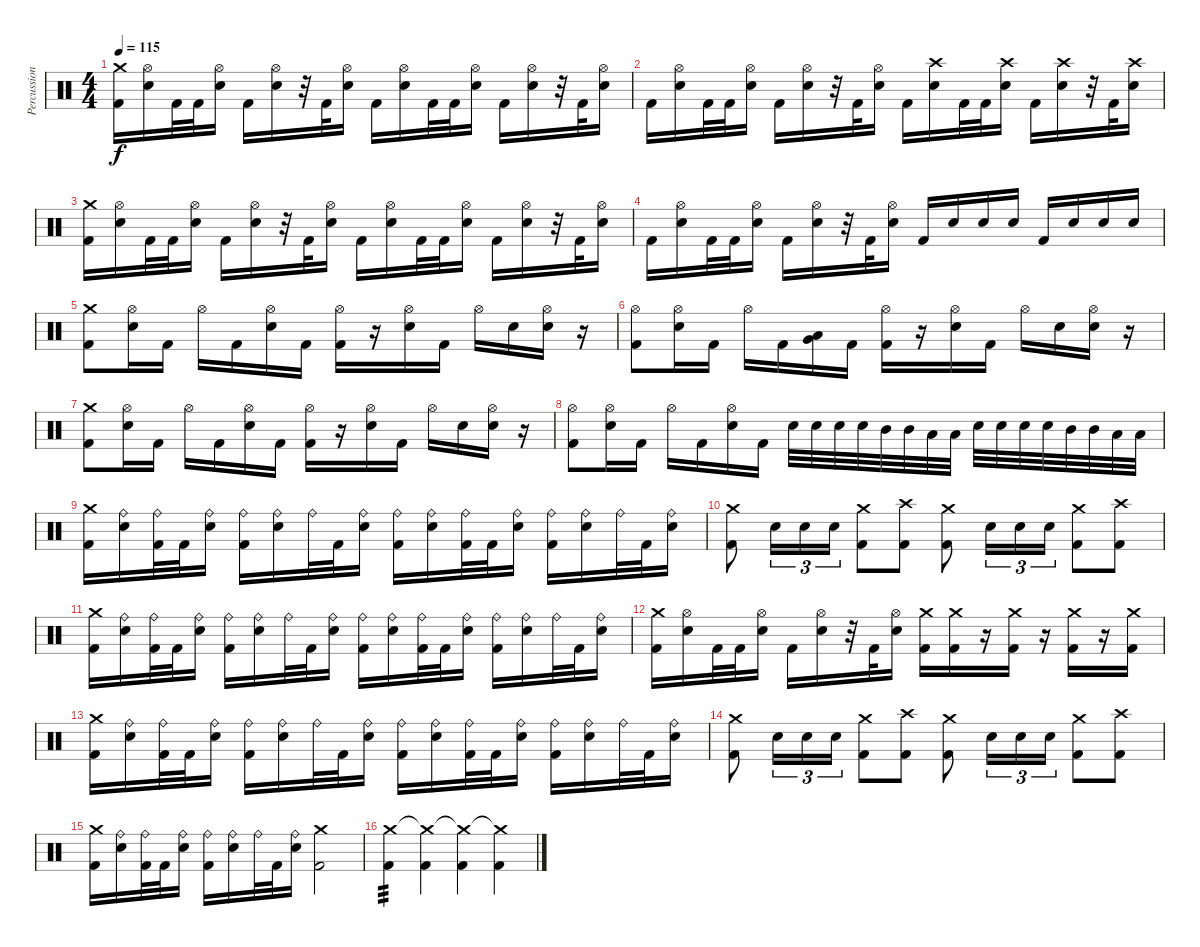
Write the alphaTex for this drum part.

\track ("Percussion" "Percussion") {instrument percussion}
\staff {score}
\articulation defaults
\ts (4 4)
\tempo 115
\clef neutral
\ks c
("Crash medium (hit)" "Kick (hit) 2").16{dy f} ("Hi-Hat (open)" "Electric Snare (hit)").16 "Kick (hit) 2".32 "Kick (hit) 2".32 ("Hi-Hat (open)" "Electric Snare (hit)").16 "Kick (hit) 2".16 ("Hi-Hat (open)" "Electric Snare (hit)").16 r.32 "Kick (hit) 2".32 ("Hi-Hat (open)" "Electric Snare (hit)").16 "Kick (hit) 2".16 ("Hi-Hat (open)" "Electric Snare (hit)").16 "Kick (hit) 2".32 "Kick (hit) 2".32 ("Hi-Hat (open)" "Electric Snare (hit)").16 "Kick (hit) 2".16 ("Hi-Hat (open)" "Electric Snare (hit)").16 r.32 "Kick (hit) 2".32 ("Hi-Hat (open)" "Electric Snare (hit)").16 |
"Kick (hit) 2".16 ("Hi-Hat (open)" "Electric Snare (hit)").16 "Kick (hit) 2".32 "Kick (hit) 2".32 ("Hi-Hat (open)" "Electric Snare (hit)").16 "Kick (hit) 2".16 ("Hi-Hat (open)" "Electric Snare (hit)").16 r.32 "Kick (hit) 2".32 ("Hi-Hat (open)" "Electric Snare (hit)").16 "Kick (hit) 2".16 ("Crash high (hit)" "Electric Snare (hit)").16 "Kick (hit) 2".32 "Kick (hit) 2".32 ("Crash high (hit)" "Electric Snare (hit)").16 "Kick (hit) 2".16 ("Crash high (hit)" "Electric Snare (hit)").16 r.32 "Kick (hit) 2".32 ("Crash high (hit)" "Electric Snare (hit)").16 |
("Crash medium (hit)" "Kick (hit) 2").16 ("Hi-Hat (open)" "Electric Snare (hit)").16 "Kick (hit) 2".32 "Kick (hit) 2".32 ("Hi-Hat (open)" "Electric Snare (hit)").16 "Kick (hit) 2".16 ("Hi-Hat (open)" "Electric Snare (hit)").16 r.32 "Kick (hit) 2".32 ("Hi-Hat (open)" "Electric Snare (hit)").16 "Kick (hit) 2".16 ("Hi-Hat (open)" "Electric Snare (hit)").16 "Kick (hit) 2".32 "Kick (hit) 2".32 ("Hi-Hat (open)" "Electric Snare (hit)").16 "Kick (hit) 2".16 ("Hi-Hat (open)" "Electric Snare (hit)").16 r.32 "Kick (hit) 2".32 ("Hi-Hat (open)" "Electric Snare (hit)").16 |
"Kick (hit) 2".16 ("Hi-Hat (open)" "Electric Snare (hit)").16 "Kick (hit) 2".32 "Kick (hit) 2".32 ("Hi-Hat (open)" "Electric Snare (hit)").16 "Kick (hit) 2".16 ("Hi-Hat (open)" "Electric Snare (hit)").16 r.32 "Kick (hit) 2".32 ("Hi-Hat (open)" "Electric Snare (hit)").16 "Kick (hit) 2".16 "Electric Snare (hit)".16 "Electric Snare (hit)".16 "Electric Snare (hit)".16 "Kick (hit) 2".16 "Electric Snare (hit)".16 "Electric Snare (hit)".16 "Electric Snare (hit)".16 |
("Crash medium (hit)" "Kick (hit) 2").8 ("Hi-Hat (open)" "Electric Snare (hit)").16 "Kick (hit) 2".16 "Hi-Hat (open)".16 "Kick (hit) 2".16 ("Hi-Hat (open)" "Electric Snare (hit)").16 "Kick (hit) 2".16 ("Hi-Hat (open)" "Kick (hit) 2").16 r.16 ("Hi-Hat (open)" "Electric Snare (hit)").16 "Kick (hit) 2".16 "Hi-Hat (open)".16 "Electric Snare (hit)".16 ("Hi-Hat (open)" "Electric Snare (hit)").16 r.16 |
("Hi-Hat (open)" "Kick (hit) 2").8 ("Hi-Hat (open)" "Electric Snare (hit)").16 "Kick (hit) 2".16 "Hi-Hat (open)".16 "Kick (hit) 2".16 ("Very Low Tom (hit)" "Low Tom (hit)").16 "Kick (hit) 2".16 ("Hi-Hat (open)" "Kick (hit) 2").16 r.16 ("Hi-Hat (open)" "Electric Snare (hit)").16 "Kick (hit) 2".16 "Hi-Hat (open)".16 "Electric Snare (hit)".16 ("Hi-Hat (open)" "Electric Snare (hit)").16 r.16 |
("Crash medium (hit)" "Kick (hit) 2").8 ("Hi-Hat (open)" "Electric Snare (hit)").16 "Kick (hit) 2".16 "Hi-Hat (open)".16 "Kick (hit) 2".16 ("Hi-Hat (open)" "Electric Snare (hit)").16 "Kick (hit) 2".16 ("Hi-Hat (open)" "Kick (hit) 2").16 r.16 ("Hi-Hat (open)" "Electric Snare (hit)").16 "Kick (hit) 2".16 "Hi-Hat (open)".16 "Electric Snare (hit)".16 ("Hi-Hat (open)" "Electric Snare (hit)").16 r.16 |
("Hi-Hat (open)" "Kick (hit) 2").8 ("Hi-Hat (open)" "Electric Snare (hit)").16 "Kick (hit) 2".16 "Hi-Hat (open)".16 "Kick (hit) 2".16 ("Hi-Hat (open)" "Electric Snare (hit)").16 "Kick (hit) 2".16 "Electric Snare (hit)".32 "Electric Snare (hit)".32 "Electric Snare (hit)".32 "Electric Snare (hit)".32 "Mid Tom (hit)".32 "Mid Tom (hit)".32 "Low Tom (hit)".32 "Low Tom (hit)".32 "Electric Snare (hit)".32 "Electric Snare (hit)".32 "Electric Snare (hit)".32 "Electric Snare (hit)".32 "Mid Tom (hit)".32 "Mid Tom (hit)".32 "Low Tom (hit)".32 "Low Tom (hit)".32 |
("Crash medium (hit)" "Kick (hit) 2").16 ("Ride (bell)" "Electric Snare (hit)").16 ("Ride (bell)" "Kick (hit) 2").32 "Kick (hit) 2".32 ("Ride (bell)" "Electric Snare (hit)").16 ("Ride (bell)" "Kick (hit) 2").16 ("Ride (bell)" "Electric Snare (hit)").16 "Ride (bell)".32 "Kick (hit) 2".32 ("Ride (bell)" "Electric Snare (hit)").16 ("Ride (bell)" "Kick (hit) 2").16 ("Ride (bell)" "Electric Snare (hit)").16 ("Ride (bell)" "Kick (hit) 2").32 "Kick (hit) 2".32 ("Ride (bell)" "Electric Snare (hit)").16 ("Ride (bell)" "Kick (hit) 2").16 ("Ride (bell)" "Electric Snare (hit)").16 "Ride (bell)".32 "Kick (hit) 2".32 ("Ride (bell)" "Electric Snare (hit)").16 |
("Crash medium (hit)" "Kick (hit) 2").8 "Electric Snare (hit)".16{tu (3 2)} "Electric Snare (hit)".16{tu (3 2)} "Electric Snare (hit)".16{tu (3 2)} ("Crash medium (hit)" "Kick (hit) 2").8 ("Crash high (hit)" "Kick (hit) 2").8 ("Crash medium (hit)" "Kick (hit) 2").8 "Electric Snare (hit)".16{tu (3 2)} "Electric Snare (hit)".16{tu (3 2)} "Electric Snare (hit)".16{tu (3 2)} ("Crash medium (hit)" "Kick (hit) 2").8 ("Crash high (hit)" "Kick (hit) 2").8 |
("Crash medium (hit)" "Kick (hit) 2").16 ("Ride (bell)" "Electric Snare (hit)").16 ("Ride (bell)" "Kick (hit) 2").32 "Kick (hit) 2".32 ("Ride (bell)" "Electric Snare (hit)").16 ("Ride (bell)" "Kick (hit) 2").16 ("Ride (bell)" "Electric Snare (hit)").16 "Ride (bell)".32 "Kick (hit) 2".32 ("Ride (bell)" "Electric Snare (hit)").16 ("Ride (bell)" "Kick (hit) 2").16 ("Ride (bell)" "Electric Snare (hit)").16 ("Ride (bell)" "Kick (hit) 2").32 "Kick (hit) 2".32 ("Ride (bell)" "Electric Snare (hit)").16 ("Ride (bell)" "Kick (hit) 2").16 ("Ride (bell)" "Electric Snare (hit)").16 "Ride (bell)".32 "Kick (hit) 2".32 ("Ride (bell)" "Electric Snare (hit)").16 |
("Crash medium (hit)" "Kick (hit) 2").16 ("Hi-Hat (open)" "Electric Snare (hit)").16 "Kick (hit) 2".32 "Kick (hit) 2".32 ("Hi-Hat (open)" "Electric Snare (hit)").16 "Kick (hit) 2".16 ("Hi-Hat (open)" "Electric Snare (hit)").16 r.32 "Kick (hit) 2".32 ("Hi-Hat (open)" "Electric Snare (hit)").16 ("Crash medium (hit)" "Kick (hit) 2").16 ("Crash medium (hit)" "Kick (hit) 2").16 r.16 ("Crash medium (hit)" "Kick (hit) 2").16 r.16 ("Crash medium (hit)" "Kick (hit) 2").16 r.16 ("Crash medium (hit)" "Kick (hit) 2").16 |
("Crash medium (hit)" "Kick (hit) 2").16 ("Ride (bell)" "Electric Snare (hit)").16 ("Ride (bell)" "Kick (hit) 2").32 "Kick (hit) 2".32 ("Ride (bell)" "Electric Snare (hit)").16 ("Ride (bell)" "Kick (hit) 2").16 ("Ride (bell)" "Electric Snare (hit)").16 "Ride (bell)".32 "Kick (hit) 2".32 ("Ride (bell)" "Electric Snare (hit)").16 ("Ride (bell)" "Kick (hit) 2").16 ("Ride (bell)" "Electric Snare (hit)").16 ("Ride (bell)" "Kick (hit) 2").32 "Kick (hit) 2".32 ("Ride (bell)" "Electric Snare (hit)").16 ("Ride (bell)" "Kick (hit) 2").16 ("Ride (bell)" "Electric Snare (hit)").16 "Ride (bell)".32 "Kick (hit) 2".32 ("Ride (bell)" "Electric Snare (hit)").16 |
("Crash medium (hit)" "Kick (hit) 2").8 "Electric Snare (hit)".16{tu (3 2)} "Electric Snare (hit)".16{tu (3 2)} "Electric Snare (hit)".16{tu (3 2)} ("Crash medium (hit)" "Kick (hit) 2").8 ("Crash high (hit)" "Kick (hit) 2").8 ("Crash medium (hit)" "Kick (hit) 2").8 "Electric Snare (hit)".16{tu (3 2)} "Electric Snare (hit)".16{tu (3 2)} "Electric Snare (hit)".16{tu (3 2)} ("Crash medium (hit)" "Kick (hit) 2").8 ("Crash high (hit)" "Kick (hit) 2").8 |
("Crash medium (hit)" "Kick (hit) 2").16 ("Ride (bell)" "Electric Snare (hit)").16 ("Ride (bell)" "Kick (hit) 2").32 "Kick (hit) 2".32 ("Ride (bell)" "Electric Snare (hit)").16 ("Ride (bell)" "Kick (hit) 2").16 ("Ride (bell)" "Electric Snare (hit)").16 "Ride (bell)".32 "Kick (hit) 2".32 ("Ride (bell)" "Electric Snare (hit)").16 ("Crash medium (hit)" "Kick (hit) 2").2 |
("Crash medium (hit)" "Kick (hit) 2").4{tp 3} ("Crash medium (hit)"{t} "Kick (hit) 2").4 ("Crash medium (hit)"{t} "Kick (hit) 2").4 ("Crash medium (hit)"{t} "Kick (hit) 2").4
